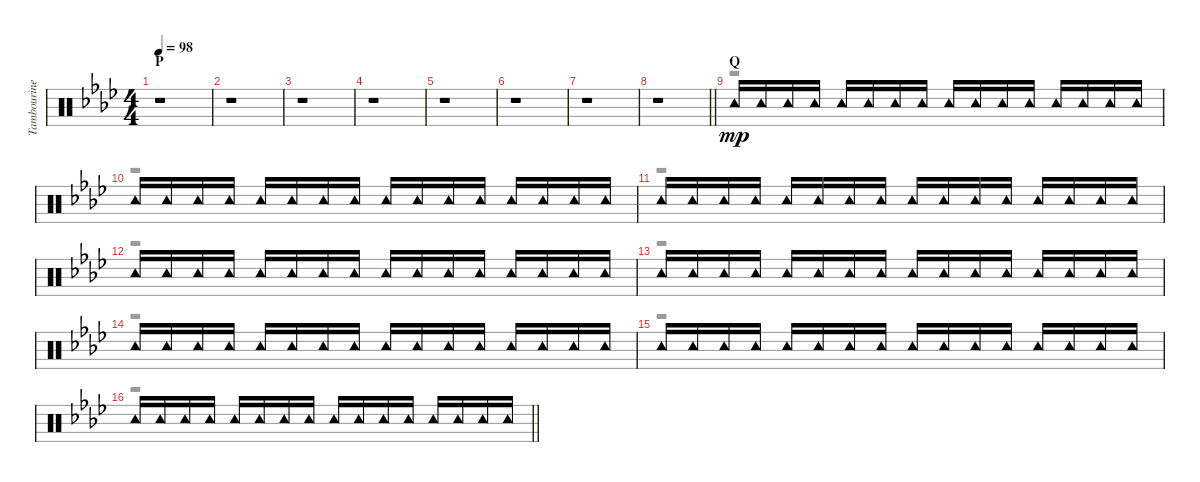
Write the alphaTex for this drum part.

\track ("Tambourine" "Tambourine") {instrument percussion}
\staff {score}
\articulation defaults
\voice
\ts (4 4)
\section ("" "P")
\tempo 98
\clef neutral
\ks ab
r.1{dy mp} |
r.1 |
r.1 |
r.1 |
r.1 |
r.1 |
r.1 |
\barLineRight lightlight
r.1 |
\section ("" "Q")
"Tambourine (hit)".16 "Tambourine (hit)".16 "Tambourine (hit)".16 "Tambourine (hit)".16 "Tambourine (hit)".16 "Tambourine (hit)".16 "Tambourine (hit)".16 "Tambourine (hit)".16 "Tambourine (hit)".16 "Tambourine (hit)".16 "Tambourine (hit)".16 "Tambourine (hit)".16 "Tambourine (hit)".16 "Tambourine (hit)".16 "Tambourine (hit)".16 "Tambourine (hit)".16 |
"Tambourine (hit)".16 "Tambourine (hit)".16 "Tambourine (hit)".16 "Tambourine (hit)".16 "Tambourine (hit)".16 "Tambourine (hit)".16 "Tambourine (hit)".16 "Tambourine (hit)".16 "Tambourine (hit)".16 "Tambourine (hit)".16 "Tambourine (hit)".16 "Tambourine (hit)".16 "Tambourine (hit)".16 "Tambourine (hit)".16 "Tambourine (hit)".16 "Tambourine (hit)".16 |
"Tambourine (hit)".16 "Tambourine (hit)".16 "Tambourine (hit)".16 "Tambourine (hit)".16 "Tambourine (hit)".16 "Tambourine (hit)".16 "Tambourine (hit)".16 "Tambourine (hit)".16 "Tambourine (hit)".16 "Tambourine (hit)".16 "Tambourine (hit)".16 "Tambourine (hit)".16 "Tambourine (hit)".16 "Tambourine (hit)".16 "Tambourine (hit)".16 "Tambourine (hit)".16 |
"Tambourine (hit)".16 "Tambourine (hit)".16 "Tambourine (hit)".16 "Tambourine (hit)".16 "Tambourine (hit)".16 "Tambourine (hit)".16 "Tambourine (hit)".16 "Tambourine (hit)".16 "Tambourine (hit)".16 "Tambourine (hit)".16 "Tambourine (hit)".16 "Tambourine (hit)".16 "Tambourine (hit)".16 "Tambourine (hit)".16 "Tambourine (hit)".16 "Tambourine (hit)".16 |
"Tambourine (hit)".16 "Tambourine (hit)".16 "Tambourine (hit)".16 "Tambourine (hit)".16 "Tambourine (hit)".16 "Tambourine (hit)".16 "Tambourine (hit)".16 "Tambourine (hit)".16 "Tambourine (hit)".16 "Tambourine (hit)".16 "Tambourine (hit)".16 "Tambourine (hit)".16 "Tambourine (hit)".16 "Tambourine (hit)".16 "Tambourine (hit)".16 "Tambourine (hit)".16 |
"Tambourine (hit)".16 "Tambourine (hit)".16 "Tambourine (hit)".16 "Tambourine (hit)".16 "Tambourine (hit)".16 "Tambourine (hit)".16 "Tambourine (hit)".16 "Tambourine (hit)".16 "Tambourine (hit)".16 "Tambourine (hit)".16 "Tambourine (hit)".16 "Tambourine (hit)".16 "Tambourine (hit)".16 "Tambourine (hit)".16 "Tambourine (hit)".16 "Tambourine (hit)".16 |
"Tambourine (hit)".16 "Tambourine (hit)".16 "Tambourine (hit)".16 "Tambourine (hit)".16 "Tambourine (hit)".16 "Tambourine (hit)".16 "Tambourine (hit)".16 "Tambourine (hit)".16 "Tambourine (hit)".16 "Tambourine (hit)".16 "Tambourine (hit)".16 "Tambourine (hit)".16 "Tambourine (hit)".16 "Tambourine (hit)".16 "Tambourine (hit)".16 "Tambourine (hit)".16 |
\barLineRight lightlight "Tambourine (hit)".16 "Tambourine (hit)".16 "Tambourine (hit)".16 "Tambourine (hit)".16 "Tambourine (hit)".16 "Tambourine (hit)".16 "Tambourine (hit)".16 "Tambourine (hit)".16 "Tambourine (hit)".16 "Tambourine (hit)".16 "Tambourine (hit)".16 "Tambourine (hit)".16 "Tambourine (hit)".16 "Tambourine (hit)".16 "Tambourine (hit)".16 "Tambourine (hit)".16
\voice
\clef neutral
\ottava regular
\simile none
\ks ab
r.1{dy f} |
r.1 |
r.1 |
r.1 |
r.1 |
r.1 |
r.1 |
\barLineRight lightlight
r.1 |
r.1 |
r.1 |
r.1 |
r.1 |
r.1 |
r.1 |
r.1 |
\barLineRight lightlight
r.1
